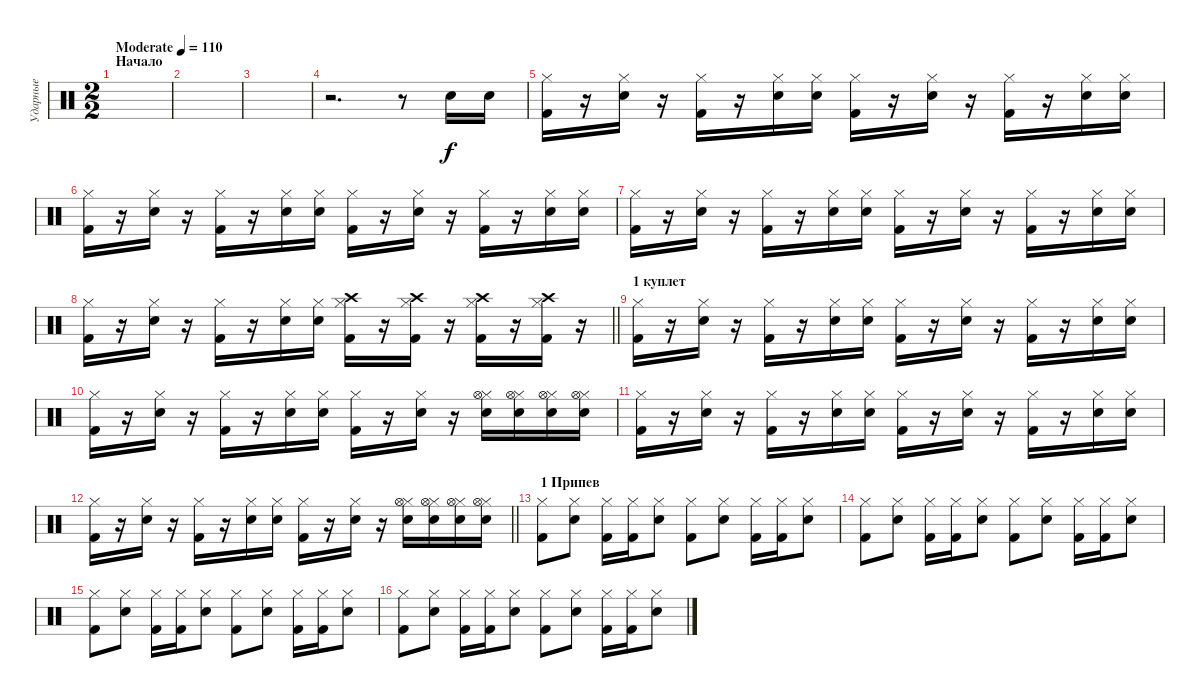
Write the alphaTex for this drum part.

\track ("Ударные" "Ударные") {instrument percussion}
\staff {score}
\articulation defaults
\ts (2 2)
\section ("" "Начало")
\tempo (110 "Moderate")
\clef neutral
\ks c
|
|
|
r.2{d} r.8 "Snare (hit) 2".16 "Snare (hit) 2".16 |
("Hi-Hat (closed)" "Kick (hit) 2").16 r.16 ("Hi-Hat (closed)" "Snare (hit) 2").16 r.16 ("Hi-Hat (closed)" "Kick (hit) 2").16 r.16 ("Snare (hit) 2" "Hi-Hat (closed)").16 ("Snare (hit) 2" "Hi-Hat (closed)").16 ("Hi-Hat (closed)" "Kick (hit) 2").16 r.16 ("Snare (hit) 2" "Hi-Hat (closed)").16 r.16 ("Hi-Hat (closed)" "Kick (hit) 2").16 r.16 ("Snare (hit) 2" "Hi-Hat (closed)").16 ("Snare (hit) 2" "Hi-Hat (closed)").16 |
("Hi-Hat (closed)" "Kick (hit) 2").16 r.16 ("Hi-Hat (closed)" "Snare (hit) 2").16 r.16 ("Hi-Hat (closed)" "Kick (hit) 2").16 r.16 ("Snare (hit) 2" "Hi-Hat (closed)").16 ("Snare (hit) 2" "Hi-Hat (closed)").16 ("Hi-Hat (closed)" "Kick (hit) 2").16 r.16 ("Snare (hit) 2" "Hi-Hat (closed)").16 r.16 ("Hi-Hat (closed)" "Kick (hit) 2").16 r.16 ("Snare (hit) 2" "Hi-Hat (closed)").16 ("Snare (hit) 2" "Hi-Hat (closed)").16 |
("Hi-Hat (closed)" "Kick (hit) 2").16 r.16 ("Hi-Hat (closed)" "Snare (hit) 2").16 r.16 ("Hi-Hat (closed)" "Kick (hit) 2").16 r.16 ("Snare (hit) 2" "Hi-Hat (closed)").16 ("Snare (hit) 2" "Hi-Hat (closed)").16 ("Hi-Hat (closed)" "Kick (hit) 2").16 r.16 ("Snare (hit) 2" "Hi-Hat (closed)").16 r.16 ("Hi-Hat (closed)" "Kick (hit) 2").16 r.16 ("Snare (hit) 2" "Hi-Hat (closed)").16 ("Snare (hit) 2" "Hi-Hat (closed)").16 |
\barLineRight lightlight
("Hi-Hat (closed)" "Kick (hit) 2").16 r.16 ("Hi-Hat (closed)" "Snare (hit) 2").16 r.16 ("Hi-Hat (closed)" "Kick (hit) 2").16 r.16 ("Snare (hit) 2" "Hi-Hat (closed)").16 ("Snare (hit) 2" "Hi-Hat (closed)").16 ("Crash high (hit)" "Hi-Hat (closed)" "Kick (hit) 2").16 r.16 ("Crash high (hit)" "Hi-Hat (closed)" "Kick (hit) 2").16 r.16 ("Crash high (hit)" "Hi-Hat (closed)" "Kick (hit) 2").16 r.16 ("Crash high (hit)" "Hi-Hat (closed)" "Kick (hit) 2").16 r.16 |
\section ("" "1 куплет")
("Hi-Hat (closed)" "Kick (hit) 2").16 r.16 ("Hi-Hat (closed)" "Snare (hit) 2").16 r.16 ("Hi-Hat (closed)" "Kick (hit) 2").16 r.16 ("Snare (hit) 2" "Hi-Hat (closed)").16 ("Snare (hit) 2" "Hi-Hat (closed)").16 ("Hi-Hat (closed)" "Kick (hit) 2").16 r.16 ("Snare (hit) 2" "Hi-Hat (closed)").16 r.16 ("Hi-Hat (closed)" "Kick (hit) 2").16 r.16 ("Snare (hit) 2" "Hi-Hat (closed)").16 ("Snare (hit) 2" "Hi-Hat (closed)").16 |
("Hi-Hat (closed)" "Kick (hit) 2").16 r.16 ("Hi-Hat (closed)" "Snare (hit) 2").16 r.16 ("Hi-Hat (closed)" "Kick (hit) 2").16 r.16 ("Snare (hit) 2" "Hi-Hat (closed)").16 ("Snare (hit) 2" "Hi-Hat (closed)").16 ("Hi-Hat (closed)" "Kick (hit) 2").16 r.16 ("Snare (hit) 2" "Hi-Hat (closed)").16 r.16 ("Snare (hit) 2" "Hi-Hat (closed)" "Hi-Hat (open)").16 ("Snare (hit) 2" "Hi-Hat (closed)" "Hi-Hat (open)").16 ("Snare (hit) 2" "Hi-Hat (closed)" "Hi-Hat (open)").16 ("Snare (hit) 2" "Hi-Hat (closed)" "Hi-Hat (open)").16 |
("Hi-Hat (closed)" "Kick (hit) 2").16 r.16 ("Hi-Hat (closed)" "Snare (hit) 2").16 r.16 ("Hi-Hat (closed)" "Kick (hit) 2").16 r.16 ("Snare (hit) 2" "Hi-Hat (closed)").16 ("Snare (hit) 2" "Hi-Hat (closed)").16 ("Hi-Hat (closed)" "Kick (hit) 2").16 r.16 ("Snare (hit) 2" "Hi-Hat (closed)").16 r.16 ("Hi-Hat (closed)" "Kick (hit) 2").16 r.16 ("Snare (hit) 2" "Hi-Hat (closed)").16 ("Snare (hit) 2" "Hi-Hat (closed)").16 |
\barLineRight lightlight
("Hi-Hat (closed)" "Kick (hit) 2").16 r.16 ("Hi-Hat (closed)" "Snare (hit) 2").16 r.16 ("Hi-Hat (closed)" "Kick (hit) 2").16 r.16 ("Snare (hit) 2" "Hi-Hat (closed)").16 ("Snare (hit) 2" "Hi-Hat (closed)").16 ("Hi-Hat (closed)" "Kick (hit) 2").16 r.16 ("Snare (hit) 2" "Hi-Hat (closed)").16 r.16 ("Snare (hit) 2" "Hi-Hat (closed)" "Hi-Hat (open)").16 ("Snare (hit) 2" "Hi-Hat (closed)" "Hi-Hat (open)").16 ("Snare (hit) 2" "Hi-Hat (closed)" "Hi-Hat (open)").16 ("Snare (hit) 2" "Hi-Hat (closed)" "Hi-Hat (open)").16 |
\section ("" " 1 Припев")
("Hi-Hat (closed)" "Kick (hit) 2").8 ("Snare (hit) 2" "Hi-Hat (closed)").8 ("Hi-Hat (closed)" "Kick (hit) 2").16 ("Hi-Hat (closed)" "Kick (hit) 2").16 ("Snare (hit) 2" "Hi-Hat (closed)").8 ("Hi-Hat (closed)" "Kick (hit) 2").8 ("Snare (hit) 2" "Hi-Hat (closed)").8 ("Hi-Hat (closed)" "Kick (hit) 2").16 ("Hi-Hat (closed)" "Kick (hit) 2").16 ("Snare (hit) 2" "Hi-Hat (closed)").8 |
("Hi-Hat (closed)" "Kick (hit) 2").8 ("Snare (hit) 2" "Hi-Hat (closed)").8 ("Hi-Hat (closed)" "Kick (hit) 2").16 ("Hi-Hat (closed)" "Kick (hit) 2").16 ("Snare (hit) 2" "Hi-Hat (closed)").8 ("Hi-Hat (closed)" "Kick (hit) 2").8 ("Snare (hit) 2" "Hi-Hat (closed)").8 ("Hi-Hat (closed)" "Kick (hit) 2").16 ("Hi-Hat (closed)" "Kick (hit) 2").16 ("Snare (hit) 2" "Hi-Hat (closed)").8 |
("Hi-Hat (closed)" "Kick (hit) 2").8 ("Snare (hit) 2" "Hi-Hat (closed)").8 ("Hi-Hat (closed)" "Kick (hit) 2").16 ("Hi-Hat (closed)" "Kick (hit) 2").16 ("Snare (hit) 2" "Hi-Hat (closed)").8 ("Hi-Hat (closed)" "Kick (hit) 2").8 ("Snare (hit) 2" "Hi-Hat (closed)").8 ("Hi-Hat (closed)" "Kick (hit) 2").16 ("Hi-Hat (closed)" "Kick (hit) 2").16 ("Snare (hit) 2" "Hi-Hat (closed)").8 |
("Hi-Hat (closed)" "Kick (hit) 2").8 ("Snare (hit) 2" "Hi-Hat (closed)").8 ("Hi-Hat (closed)" "Kick (hit) 2").16 ("Hi-Hat (closed)" "Kick (hit) 2").16 ("Snare (hit) 2" "Hi-Hat (closed)").8 ("Hi-Hat (closed)" "Kick (hit) 2").8 ("Snare (hit) 2" "Hi-Hat (closed)").8 ("Hi-Hat (closed)" "Kick (hit) 2").16 ("Hi-Hat (closed)" "Kick (hit) 2").16 ("Snare (hit) 2" "Hi-Hat (closed)").8
